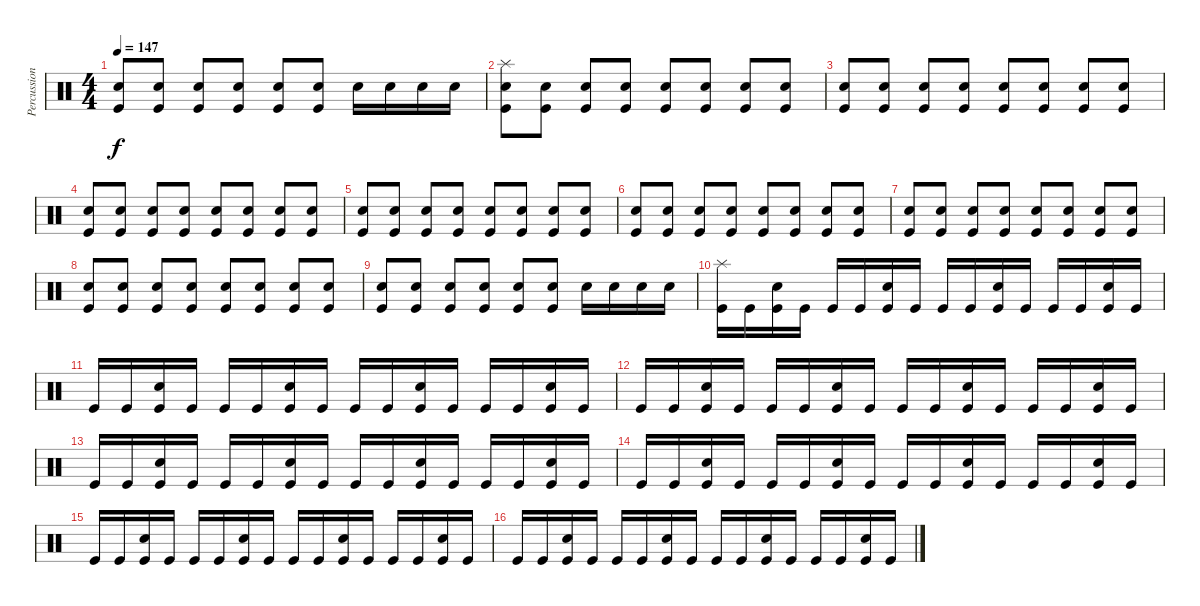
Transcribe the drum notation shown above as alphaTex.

\track ("Percussions" "Percussion") {instrument percussion}
\staff {score}
\articulation defaults
\ts (4 4)
\tempo 147
\clef neutral
\ks c
("Electric Snare (hit)" "Kick (hit)").8{dy f} ("Electric Snare (hit)" "Kick (hit)").8 ("Electric Snare (hit)" "Kick (hit)").8 ("Electric Snare (hit)" "Kick (hit)").8 ("Electric Snare (hit)" "Kick (hit)").8 ("Electric Snare (hit)" "Kick (hit)").8 "Electric Snare (hit)".16 "Electric Snare (hit)".16 "Electric Snare (hit)".16 "Electric Snare (hit)".16 |
("Splash (hit)" "Electric Snare (hit)" "Kick (hit)").8 ("Electric Snare (hit)" "Kick (hit)").8 ("Electric Snare (hit)" "Kick (hit)").8 ("Electric Snare (hit)" "Kick (hit)").8 ("Electric Snare (hit)" "Kick (hit)").8 ("Electric Snare (hit)" "Kick (hit)").8 ("Electric Snare (hit)" "Kick (hit)").8 ("Electric Snare (hit)" "Kick (hit)").8 |
("Electric Snare (hit)" "Kick (hit)").8 ("Electric Snare (hit)" "Kick (hit)").8 ("Electric Snare (hit)" "Kick (hit)").8 ("Electric Snare (hit)" "Kick (hit)").8 ("Electric Snare (hit)" "Kick (hit)").8 ("Electric Snare (hit)" "Kick (hit)").8 ("Electric Snare (hit)" "Kick (hit)").8 ("Electric Snare (hit)" "Kick (hit)").8 |
("Electric Snare (hit)" "Kick (hit)").8 ("Electric Snare (hit)" "Kick (hit)").8 ("Electric Snare (hit)" "Kick (hit)").8 ("Electric Snare (hit)" "Kick (hit)").8 ("Electric Snare (hit)" "Kick (hit)").8 ("Electric Snare (hit)" "Kick (hit)").8 ("Electric Snare (hit)" "Kick (hit)").8 ("Electric Snare (hit)" "Kick (hit)").8 |
("Electric Snare (hit)" "Kick (hit)").8 ("Electric Snare (hit)" "Kick (hit)").8 ("Electric Snare (hit)" "Kick (hit)").8 ("Electric Snare (hit)" "Kick (hit)").8 ("Electric Snare (hit)" "Kick (hit)").8 ("Electric Snare (hit)" "Kick (hit)").8 ("Electric Snare (hit)" "Kick (hit)").8 ("Electric Snare (hit)" "Kick (hit)").8 |
("Electric Snare (hit)" "Kick (hit)").8 ("Electric Snare (hit)" "Kick (hit)").8 ("Electric Snare (hit)" "Kick (hit)").8 ("Electric Snare (hit)" "Kick (hit)").8 ("Electric Snare (hit)" "Kick (hit)").8 ("Electric Snare (hit)" "Kick (hit)").8 ("Electric Snare (hit)" "Kick (hit)").8 ("Electric Snare (hit)" "Kick (hit)").8 |
("Electric Snare (hit)" "Kick (hit)").8 ("Electric Snare (hit)" "Kick (hit)").8 ("Electric Snare (hit)" "Kick (hit)").8 ("Electric Snare (hit)" "Kick (hit)").8 ("Electric Snare (hit)" "Kick (hit)").8 ("Electric Snare (hit)" "Kick (hit)").8 ("Electric Snare (hit)" "Kick (hit)").8 ("Electric Snare (hit)" "Kick (hit)").8 |
("Electric Snare (hit)" "Kick (hit)").8 ("Electric Snare (hit)" "Kick (hit)").8 ("Electric Snare (hit)" "Kick (hit)").8 ("Electric Snare (hit)" "Kick (hit)").8 ("Electric Snare (hit)" "Kick (hit)").8 ("Electric Snare (hit)" "Kick (hit)").8 ("Electric Snare (hit)" "Kick (hit)").8 ("Electric Snare (hit)" "Kick (hit)").8 |
("Electric Snare (hit)" "Kick (hit)").8 ("Electric Snare (hit)" "Kick (hit)").8 ("Electric Snare (hit)" "Kick (hit)").8 ("Electric Snare (hit)" "Kick (hit)").8 ("Electric Snare (hit)" "Kick (hit)").8 ("Electric Snare (hit)" "Kick (hit)").8 "Electric Snare (hit)".16 "Electric Snare (hit)".16 "Electric Snare (hit)".16 "Electric Snare (hit)".16 |
("Splash (hit)" "Kick (hit)").16 "Kick (hit)".16 ("Electric Snare (hit)" "Kick (hit)").16 "Kick (hit)".16 "Kick (hit)".16 "Kick (hit)".16 ("Electric Snare (hit)" "Kick (hit)").16 "Kick (hit)".16 "Kick (hit)".16 "Kick (hit)".16 ("Electric Snare (hit)" "Kick (hit)").16 "Kick (hit)".16 "Kick (hit)".16 "Kick (hit)".16 ("Electric Snare (hit)" "Kick (hit)").16 "Kick (hit)".16 |
"Kick (hit)".16 "Kick (hit)".16 ("Electric Snare (hit)" "Kick (hit)").16 "Kick (hit)".16 "Kick (hit)".16 "Kick (hit)".16 ("Electric Snare (hit)" "Kick (hit)").16 "Kick (hit)".16 "Kick (hit)".16 "Kick (hit)".16 ("Electric Snare (hit)" "Kick (hit)").16 "Kick (hit)".16 "Kick (hit)".16 "Kick (hit)".16 ("Electric Snare (hit)" "Kick (hit)").16 "Kick (hit)".16 |
"Kick (hit)".16 "Kick (hit)".16 ("Electric Snare (hit)" "Kick (hit)").16 "Kick (hit)".16 "Kick (hit)".16 "Kick (hit)".16 ("Electric Snare (hit)" "Kick (hit)").16 "Kick (hit)".16 "Kick (hit)".16 "Kick (hit)".16 ("Electric Snare (hit)" "Kick (hit)").16 "Kick (hit)".16 "Kick (hit)".16 "Kick (hit)".16 ("Electric Snare (hit)" "Kick (hit)").16 "Kick (hit)".16 |
"Kick (hit)".16 "Kick (hit)".16 ("Electric Snare (hit)" "Kick (hit)").16 "Kick (hit)".16 "Kick (hit)".16 "Kick (hit)".16 ("Electric Snare (hit)" "Kick (hit)").16 "Kick (hit)".16 "Kick (hit)".16 "Kick (hit)".16 ("Electric Snare (hit)" "Kick (hit)").16 "Kick (hit)".16 "Kick (hit)".16 "Kick (hit)".16 ("Electric Snare (hit)" "Kick (hit)").16 "Kick (hit)".16 |
"Kick (hit)".16 "Kick (hit)".16 ("Electric Snare (hit)" "Kick (hit)").16 "Kick (hit)".16 "Kick (hit)".16 "Kick (hit)".16 ("Electric Snare (hit)" "Kick (hit)").16 "Kick (hit)".16 "Kick (hit)".16 "Kick (hit)".16 ("Electric Snare (hit)" "Kick (hit)").16 "Kick (hit)".16 "Kick (hit)".16 "Kick (hit)".16 ("Electric Snare (hit)" "Kick (hit)").16 "Kick (hit)".16 |
"Kick (hit)".16 "Kick (hit)".16 ("Electric Snare (hit)" "Kick (hit)").16 "Kick (hit)".16 "Kick (hit)".16 "Kick (hit)".16 ("Electric Snare (hit)" "Kick (hit)").16 "Kick (hit)".16 "Kick (hit)".16 "Kick (hit)".16 ("Electric Snare (hit)" "Kick (hit)").16 "Kick (hit)".16 "Kick (hit)".16 "Kick (hit)".16 ("Electric Snare (hit)" "Kick (hit)").16 "Kick (hit)".16 |
"Kick (hit)".16 "Kick (hit)".16 ("Electric Snare (hit)" "Kick (hit)").16 "Kick (hit)".16 "Kick (hit)".16 "Kick (hit)".16 ("Electric Snare (hit)" "Kick (hit)").16 "Kick (hit)".16 "Kick (hit)".16 "Kick (hit)".16 ("Electric Snare (hit)" "Kick (hit)").16 "Kick (hit)".16 "Kick (hit)".16 "Kick (hit)".16 ("Electric Snare (hit)" "Kick (hit)").16 "Kick (hit)".16
